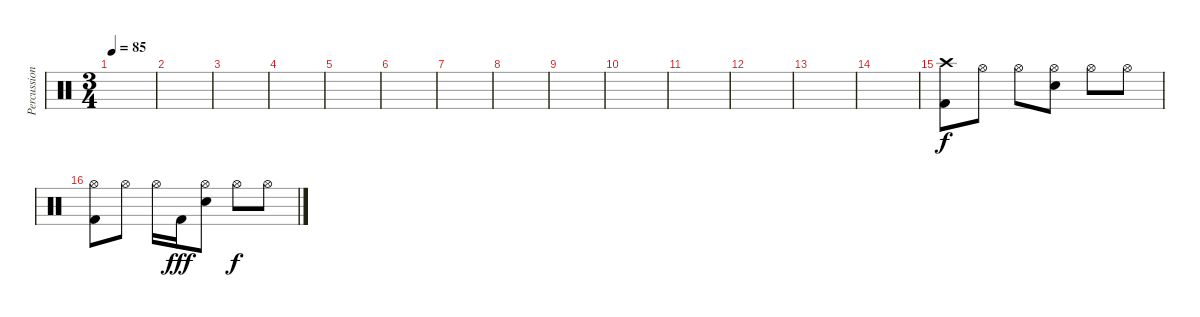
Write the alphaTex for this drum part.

\track ("Percussion" "Percussion") {instrument percussion}
\staff {score}
\articulation defaults
\ts (3 4)
\tempo 85
\clef neutral
\ks c
|
|
|
|
|
|
|
|
|
|
|
|
|
|
("Crash high (hit)" "Kick (hit) 2").8 "Hi-Hat (open)".8{dy f} "Hi-Hat (open)".8 ("Snare (hit) 2" "Hi-Hat (open)").8 "Hi-Hat (open)".8 "Hi-Hat (open)".8 |
("Hi-Hat (open)" "Kick (hit) 2").8 "Hi-Hat (open)".8 "Hi-Hat (open)".16 "Kick (hit) 2".16{dy fff} ("Snare (hit) 2" "Hi-Hat (open)").8 "Hi-Hat (open)".8{dy f} "Hi-Hat (open)".8
